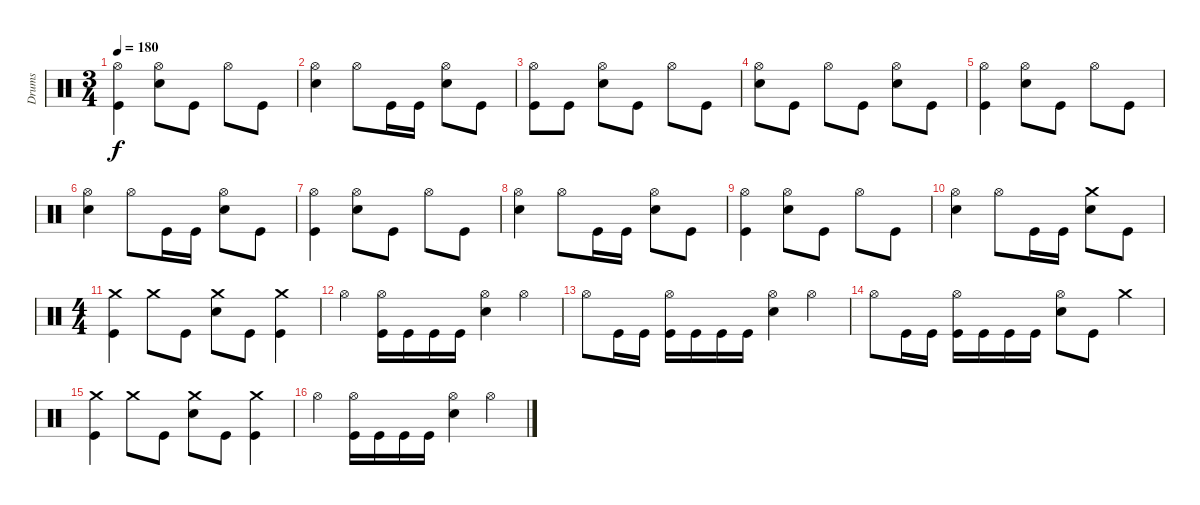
\track ("Drums" "Drums") {instrument percussion}
\staff {score}
\articulation defaults
\ts (3 4)
\tempo 180
\clef neutral
\ks c
("Hi-Hat (open)" "Kick (hit)").4{dy f} ("Hi-Hat (open)" "Electric Snare (hit)").8 "Kick (hit)".8 "Hi-Hat (open)".8 "Kick (hit)".8 |
("Hi-Hat (open)" "Electric Snare (hit)").4 "Hi-Hat (open)".8 "Kick (hit)".16 "Kick (hit)".16 ("Hi-Hat (open)" "Electric Snare (hit)").8 "Kick (hit)".8 |
("Hi-Hat (open)" "Kick (hit)").8 "Kick (hit)".8 ("Hi-Hat (open)" "Electric Snare (hit)").8 "Kick (hit)".8 "Hi-Hat (open)".8 "Kick (hit)".8 |
("Hi-Hat (open)" "Electric Snare (hit)").8 "Kick (hit)".8 "Hi-Hat (open)".8 "Kick (hit)".8 ("Hi-Hat (open)" "Electric Snare (hit)").8 "Kick (hit)".8 |
("Hi-Hat (open)" "Kick (hit)").4 ("Hi-Hat (open)" "Electric Snare (hit)").8 "Kick (hit)".8 "Hi-Hat (open)".8 "Kick (hit)".8 |
("Hi-Hat (open)" "Electric Snare (hit)").4 "Hi-Hat (open)".8 "Kick (hit)".16 "Kick (hit)".16 ("Hi-Hat (open)" "Electric Snare (hit)").8 "Kick (hit)".8 |
("Hi-Hat (open)" "Kick (hit)").4 ("Hi-Hat (open)" "Electric Snare (hit)").8 "Kick (hit)".8 "Hi-Hat (open)".8 "Kick (hit)".8 |
("Hi-Hat (open)" "Electric Snare (hit)").4 "Hi-Hat (open)".8 "Kick (hit)".16 "Kick (hit)".16 ("Hi-Hat (open)" "Electric Snare (hit)").8 "Kick (hit)".8 |
("Hi-Hat (open)" "Kick (hit)").4 ("Hi-Hat (open)" "Electric Snare (hit)").8 "Kick (hit)".8 "Hi-Hat (open)".8 "Kick (hit)".8 |
("Hi-Hat (open)" "Electric Snare (hit)").4 "Hi-Hat (open)".8 "Kick (hit)".16 "Kick (hit)".16 ("Crash medium (hit)" "Electric Snare (hit)").8 "Kick (hit)".8 |
\ts (4 4)
("Crash medium (hit)" "Kick (hit)").4 "Crash medium (hit)".8 "Kick (hit)".8 ("Crash medium (hit)" "Electric Snare (hit)").8 "Kick (hit)".8 ("Crash medium (hit)" "Kick (hit)").4 |
"Hi-Hat (open)".4 ("Hi-Hat (open)" "Kick (hit)").16 "Kick (hit)".16 "Kick (hit)".16 "Kick (hit)".16 ("Hi-Hat (open)" "Electric Snare (hit)").4 "Hi-Hat (open)".4 |
"Hi-Hat (open)".8 "Kick (hit)".16 "Kick (hit)".16 ("Hi-Hat (open)" "Kick (hit)").16 "Kick (hit)".16 "Kick (hit)".16 "Kick (hit)".16 ("Hi-Hat (open)" "Electric Snare (hit)").4 "Hi-Hat (open)".4 |
"Hi-Hat (open)".8 "Kick (hit)".16 "Kick (hit)".16 ("Hi-Hat (open)" "Kick (hit)").16 "Kick (hit)".16 "Kick (hit)".16 "Kick (hit)".16 ("Hi-Hat (open)" "Electric Snare (hit)").8 "Kick (hit)".8 "Crash medium (hit)".4 |
("Crash medium (hit)" "Kick (hit)").4 "Crash medium (hit)".8 "Kick (hit)".8 ("Crash medium (hit)" "Electric Snare (hit)").8 "Kick (hit)".8 ("Crash medium (hit)" "Kick (hit)").4 |
"Hi-Hat (open)".4 ("Hi-Hat (open)" "Kick (hit)").16 "Kick (hit)".16 "Kick (hit)".16 "Kick (hit)".16 ("Hi-Hat (open)" "Electric Snare (hit)").4 "Hi-Hat (open)".4
